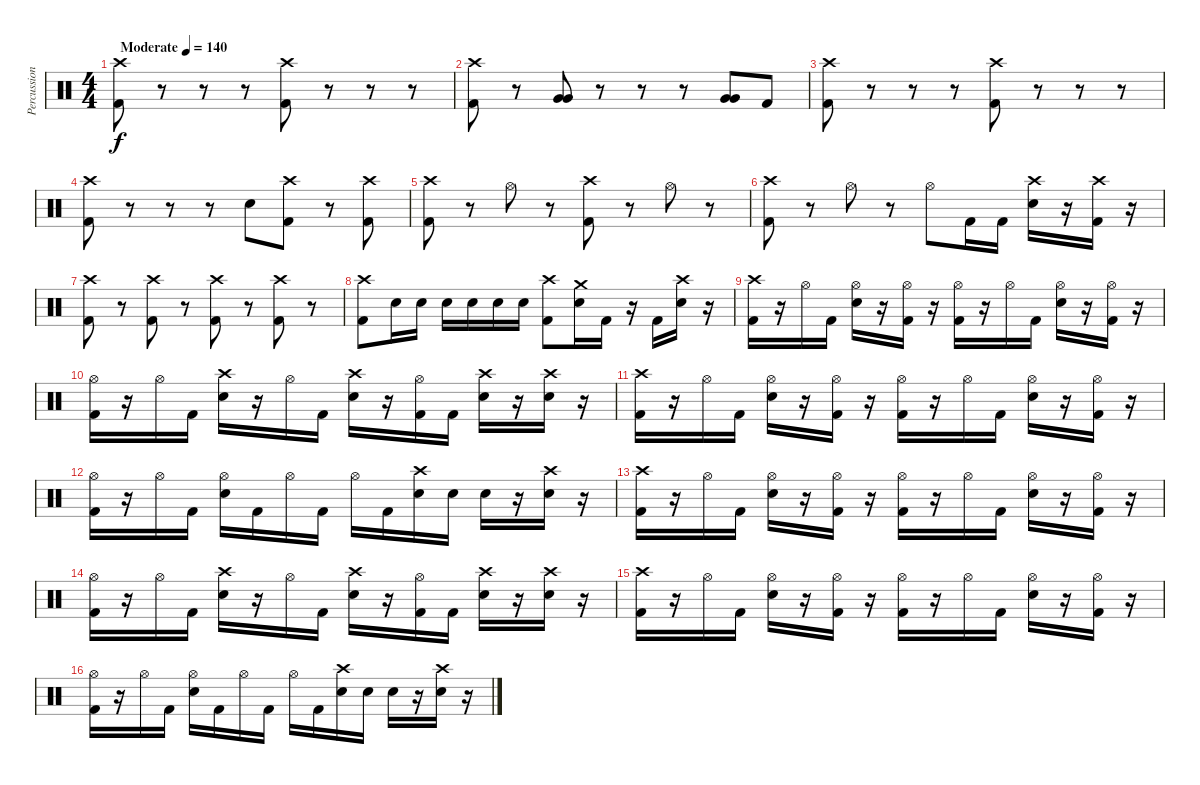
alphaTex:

\track ("Percussion" "Percussion") {instrument percussion}
\staff {score}
\articulation defaults
\ts (4 4)
\tempo (140 "Moderate")
\clef neutral
\ks c
("Crash high (hit)" "Kick (hit) 2").8{dy f} r.8 r.8 r.8 ("Crash high (hit)" "Kick (hit) 2").8 r.8 r.8 r.8 |
("Crash high (hit)" "Kick (hit) 2").8 r.8 ("Very Low Tom (hit)" "Very Low Tom (hit)").8 r.8 r.8 r.8 ("Very Low Tom (hit)" "Very Low Tom (hit)").8 "Kick (hit) 2".8 |
("Crash high (hit)" "Kick (hit) 2").8 r.8 r.8 r.8 ("Crash high (hit)" "Kick (hit) 2").8 r.8 r.8 r.8 |
("Crash high (hit)" "Kick (hit) 2").8 r.8 r.8 r.8 "Snare (hit) 2".8 ("Crash high (hit)" "Kick (hit) 2").8 r.8 ("Crash high (hit)" "Kick (hit) 2").8 |
("Crash high (hit)" "Kick (hit) 2").8 r.8 "Hi-Hat (open)".8 r.8 ("Crash high (hit)" "Kick (hit) 2").8 r.8 "Hi-Hat (open)".8 r.8 |
("Crash high (hit)" "Kick (hit) 2").8 r.8 "Hi-Hat (open)".8 r.8 "Hi-Hat (open)".8 "Kick (hit) 2".16 "Kick (hit) 2".16 ("Crash high (hit)" "Snare (hit) 2").16 r.16 ("Crash high (hit)" "Kick (hit) 2").16 r.16 |
("Crash high (hit)" "Kick (hit) 2").8 r.8 ("Crash high (hit)" "Kick (hit) 2").8 r.8 ("Crash high (hit)" "Kick (hit) 2").8 r.8 ("Crash high (hit)" "Kick (hit) 2").8 r.8 |
("Crash high (hit)" "Kick (hit) 2").8 "Snare (hit) 2".16 "Snare (hit) 2".16 "Snare (hit) 2".16 "Snare (hit) 2".16 "Snare (hit) 2".16 "Snare (hit) 2".16 ("Crash high (hit)" "Kick (hit) 2").8 ("Crash medium (hit)" "Snare (hit) 2").16 "Kick (hit) 2".16 r.16 "Kick (hit) 2".16 ("Crash high (hit)" "Snare (hit) 2").16 r.16 |
("Crash high (hit)" "Kick (hit) 2").16 r.16 "Hi-Hat (open)".16 "Kick (hit) 2".16 ("Hi-Hat (open)" "Snare (hit) 2").16 r.16 ("Hi-Hat (open)" "Kick (hit) 2").16 r.16 ("Hi-Hat (open)" "Kick (hit) 2").16 r.16 "Hi-Hat (open)".16 "Kick (hit) 2".16 ("Hi-Hat (open)" "Snare (hit) 2").16 r.16 ("Hi-Hat (open)" "Kick (hit) 2").16 r.16 |
("Hi-Hat (open)" "Kick (hit) 2").16 r.16 "Hi-Hat (open)".16 "Kick (hit) 2".16 ("Crash high (hit)" "Snare (hit) 2").16 r.16 "Hi-Hat (open)".16 "Kick (hit) 2".16 ("Crash high (hit)" "Snare (hit) 2").16 r.16 ("Hi-Hat (open)" "Kick (hit) 2").16 "Kick (hit) 2".16 ("Crash high (hit)" "Snare (hit) 2").16 r.16 ("Crash high (hit)" "Snare (hit) 2").16 r.16 |
("Crash high (hit)" "Kick (hit) 2").16 r.16 "Hi-Hat (open)".16 "Kick (hit) 2".16 ("Hi-Hat (open)" "Snare (hit) 2").16 r.16 ("Hi-Hat (open)" "Kick (hit) 2").16 r.16 ("Hi-Hat (open)" "Kick (hit) 2").16 r.16 "Hi-Hat (open)".16 "Kick (hit) 2".16 ("Hi-Hat (open)" "Snare (hit) 2").16 r.16 ("Hi-Hat (open)" "Kick (hit) 2").16 r.16 |
("Hi-Hat (open)" "Kick (hit) 2").16 r.16 "Hi-Hat (open)".16 "Kick (hit) 2".16 ("Hi-Hat (open)" "Snare (hit) 2").16 "Kick (hit) 2".16 "Hi-Hat (open)".16 "Kick (hit) 2".16 "Hi-Hat (open)".16 "Kick (hit) 2".16 ("Crash high (hit)" "Snare (hit) 2").16 "Snare (hit) 2".16 "Snare (hit) 2".16 r.16 ("Crash high (hit)" "Snare (hit) 2").16 r.16 |
("Crash high (hit)" "Kick (hit) 2").16 r.16 "Hi-Hat (open)".16 "Kick (hit) 2".16 ("Hi-Hat (open)" "Snare (hit) 2").16 r.16 ("Hi-Hat (open)" "Kick (hit) 2").16 r.16 ("Hi-Hat (open)" "Kick (hit) 2").16 r.16 "Hi-Hat (open)".16 "Kick (hit) 2".16 ("Hi-Hat (open)" "Snare (hit) 2").16 r.16 ("Hi-Hat (open)" "Kick (hit) 2").16 r.16 |
("Hi-Hat (open)" "Kick (hit) 2").16 r.16 "Hi-Hat (open)".16 "Kick (hit) 2".16 ("Crash high (hit)" "Snare (hit) 2").16 r.16 "Hi-Hat (open)".16 "Kick (hit) 2".16 ("Crash high (hit)" "Snare (hit) 2").16 r.16 ("Hi-Hat (open)" "Kick (hit) 2").16 "Kick (hit) 2".16 ("Crash high (hit)" "Snare (hit) 2").16 r.16 ("Crash high (hit)" "Snare (hit) 2").16 r.16 |
("Crash high (hit)" "Kick (hit) 2").16 r.16 "Hi-Hat (open)".16 "Kick (hit) 2".16 ("Hi-Hat (open)" "Snare (hit) 2").16 r.16 ("Hi-Hat (open)" "Kick (hit) 2").16 r.16 ("Hi-Hat (open)" "Kick (hit) 2").16 r.16 "Hi-Hat (open)".16 "Kick (hit) 2".16 ("Hi-Hat (open)" "Snare (hit) 2").16 r.16 ("Hi-Hat (open)" "Kick (hit) 2").16 r.16 |
("Hi-Hat (open)" "Kick (hit) 2").16 r.16 "Hi-Hat (open)".16 "Kick (hit) 2".16 ("Hi-Hat (open)" "Snare (hit) 2").16 "Kick (hit) 2".16 "Hi-Hat (open)".16 "Kick (hit) 2".16 "Hi-Hat (open)".16 "Kick (hit) 2".16 ("Crash high (hit)" "Snare (hit) 2").16 "Snare (hit) 2".16 "Snare (hit) 2".16 r.16 ("Crash high (hit)" "Snare (hit) 2").16 r.16
